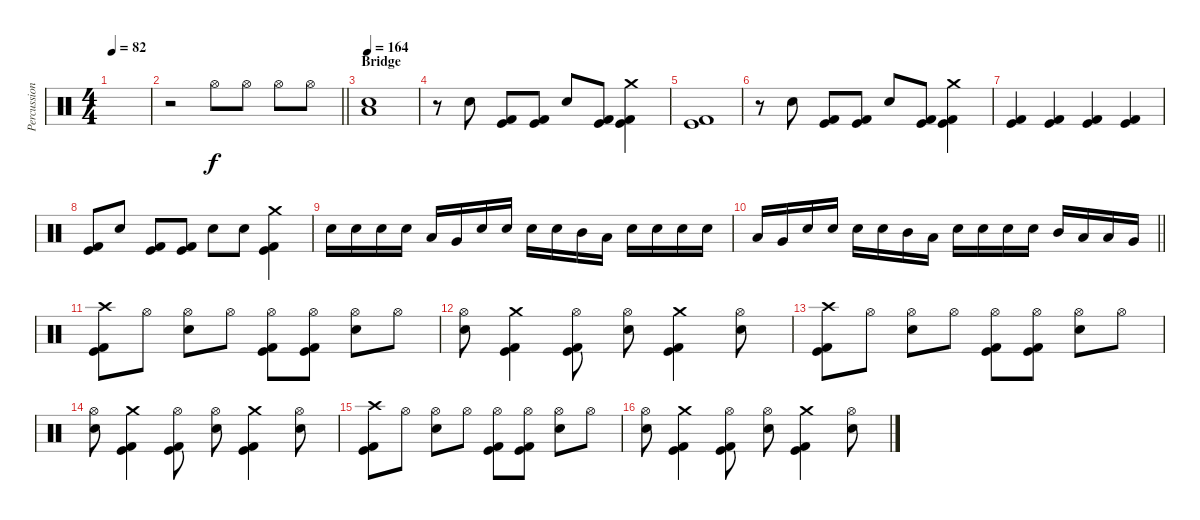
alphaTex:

\track ("Percussion" "Percussion") {instrument percussion}
\staff {score}
\articulation defaults
\ts (4 4)
\tempo 82
\clef neutral
\ks c
|
\barLineRight lightlight
r.2 "Hi-Hat (open)".8 "Hi-Hat (open)".8 "Hi-Hat (open)".8 "Hi-Hat (open)".8 |
\section ("" "Bridge")
\tempo 164
("Electric Snare (hit)" "Low Floor Tom (hit)").1 |
r.8 "Electric Snare (hit)".8 ("Kick (hit)" "Kick (hit) 2").8 ("Kick (hit)" "Kick (hit) 2").8 "Electric Snare (hit)".8 ("Kick (hit)" "Kick (hit) 2").8 ("Crash medium (hit)" "Kick (hit)" "Kick (hit) 2").4 |
("Kick (hit)" "Kick (hit) 2").1 |
r.8 "Electric Snare (hit)".8 ("Kick (hit)" "Kick (hit) 2").8 ("Kick (hit)" "Kick (hit) 2").8 "Electric Snare (hit)".8 ("Kick (hit)" "Kick (hit) 2").8 ("Crash medium (hit)" "Kick (hit)" "Kick (hit) 2").4 |
("Kick (hit)" "Kick (hit) 2").4 ("Kick (hit)" "Kick (hit) 2").4 ("Kick (hit)" "Kick (hit) 2").4 ("Kick (hit)" "Kick (hit) 2").4 |
("Kick (hit)" "Kick (hit) 2").8 "Electric Snare (hit)".8 ("Kick (hit)" "Kick (hit) 2").8 ("Kick (hit)" "Kick (hit) 2").8 "Electric Snare (hit)".8 "Electric Snare (hit)".8 ("Crash medium (hit)" "Kick (hit)" "Kick (hit) 2").4 |
"Electric Snare (hit)".16 "Electric Snare (hit)".16 "Electric Snare (hit)".16 "Electric Snare (hit)".16 "Low Tom (hit)".16 "Very Low Tom (hit)".16 "Electric Snare (hit)".16 "Electric Snare (hit)".16 "Electric Snare (hit)".16 "Electric Snare (hit)".16 "Mid Tom (hit)".16 "Low Tom (hit)".16 "Electric Snare (hit)".16 "Electric Snare (hit)".16 "Electric Snare (hit)".16 "Electric Snare (hit)".16 |
\barLineRight lightlight "Low Tom (hit)".16 "Very Low Tom (hit)".16 "Electric Snare (hit)".16 "Electric Snare (hit)".16 "Electric Snare (hit)".16 "Electric Snare (hit)".16 "Mid Tom (hit)".16 "Low Tom (hit)".16 "Electric Snare (hit)".16 "Electric Snare (hit)".16 "Electric Snare (hit)".16 "Electric Snare (hit)".16 "Mid Tom (hit)".16 "Low Tom (hit)".16 "Low Tom (hit)".16 "Very Low Tom (hit)".16
|
\section ("" "")
("Crash high (hit)" "Kick (hit)" "Kick (hit) 2").8 "Hi-Hat (open)".8 ("Hi-Hat (open)" "Electric Snare (hit)").8 "Hi-Hat (open)".8 ("Hi-Hat (open)" "Kick (hit)" "Kick (hit) 2").8 ("Hi-Hat (open)" "Kick (hit)" "Kick (hit) 2").8 ("Hi-Hat (open)" "Electric Snare (hit)").8 "Hi-Hat (open)".8 |
("Hi-Hat (open)" "Electric Snare (hit)").8 ("Crash medium (hit)" "Kick (hit)" "Kick (hit) 2").4 ("Hi-Hat (open)" "Kick (hit)" "Kick (hit) 2").8 ("Hi-Hat (open)" "Electric Snare (hit)").8 ("Crash medium (hit)" "Kick (hit)" "Kick (hit) 2").4 ("Hi-Hat (open)" "Electric Snare (hit)").8 |
("Crash high (hit)" "Kick (hit)" "Kick (hit) 2").8 "Hi-Hat (open)".8 ("Hi-Hat (open)" "Electric Snare (hit)").8 "Hi-Hat (open)".8 ("Hi-Hat (open)" "Kick (hit)" "Kick (hit) 2").8 ("Hi-Hat (open)" "Kick (hit)" "Kick (hit) 2").8 ("Hi-Hat (open)" "Electric Snare (hit)").8 "Hi-Hat (open)".8 |
("Hi-Hat (open)" "Electric Snare (hit)").8 ("Crash medium (hit)" "Kick (hit)" "Kick (hit) 2").4 ("Hi-Hat (open)" "Kick (hit)" "Kick (hit) 2").8 ("Hi-Hat (open)" "Electric Snare (hit)").8 ("Crash medium (hit)" "Kick (hit)" "Kick (hit) 2").4 ("Hi-Hat (open)" "Electric Snare (hit)").8 |
("Crash high (hit)" "Kick (hit)" "Kick (hit) 2").8 "Hi-Hat (open)".8 ("Hi-Hat (open)" "Electric Snare (hit)").8 "Hi-Hat (open)".8 ("Hi-Hat (open)" "Kick (hit)" "Kick (hit) 2").8 ("Hi-Hat (open)" "Kick (hit)" "Kick (hit) 2").8 ("Hi-Hat (open)" "Electric Snare (hit)").8 "Hi-Hat (open)".8 |
("Hi-Hat (open)" "Electric Snare (hit)").8 ("Crash medium (hit)" "Kick (hit)" "Kick (hit) 2").4 ("Hi-Hat (open)" "Kick (hit)" "Kick (hit) 2").8 ("Hi-Hat (open)" "Electric Snare (hit)").8 ("Crash medium (hit)" "Kick (hit)" "Kick (hit) 2").4 ("Hi-Hat (open)" "Electric Snare (hit)").8
